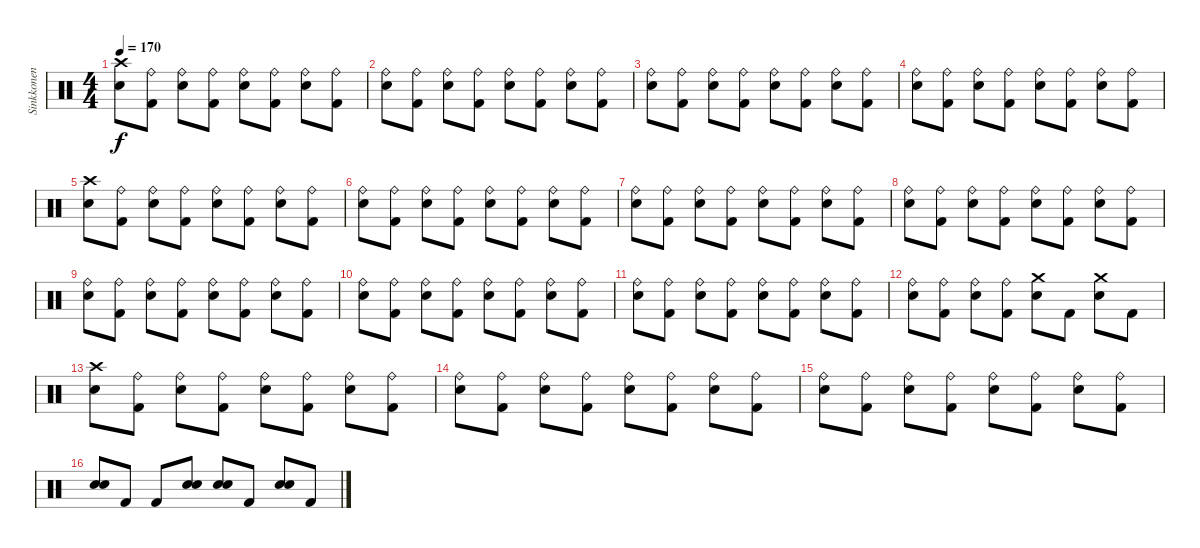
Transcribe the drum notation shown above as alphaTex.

\track ("Sinkkonen" "Sinkkonen") {instrument percussion}
\staff {score}
\articulation defaults
\ts (4 4)
\tempo 170
\clef neutral
\ks c
("Crash high (hit)" "Electric Snare (hit)").8{dy f} ("Ride (bell)" "Kick (hit) 2").8 ("Ride (bell)" "Electric Snare (hit)").8 ("Ride (bell)" "Kick (hit) 2").8 ("Ride (bell)" "Electric Snare (hit)").8 ("Ride (bell)" "Kick (hit) 2").8 ("Ride (bell)" "Electric Snare (hit)").8 ("Ride (bell)" "Kick (hit) 2").8 |
("Ride (bell)" "Electric Snare (hit)").8 ("Ride (bell)" "Kick (hit) 2").8 ("Ride (bell)" "Electric Snare (hit)").8 ("Ride (bell)" "Kick (hit) 2").8 ("Ride (bell)" "Electric Snare (hit)").8 ("Ride (bell)" "Kick (hit) 2").8 ("Ride (bell)" "Electric Snare (hit)").8 ("Ride (bell)" "Kick (hit) 2").8 |
("Ride (bell)" "Electric Snare (hit)").8 ("Ride (bell)" "Kick (hit) 2").8 ("Ride (bell)" "Electric Snare (hit)").8 ("Ride (bell)" "Kick (hit) 2").8 ("Ride (bell)" "Electric Snare (hit)").8 ("Ride (bell)" "Kick (hit) 2").8 ("Ride (bell)" "Electric Snare (hit)").8 ("Ride (bell)" "Kick (hit) 2").8 |
("Ride (bell)" "Electric Snare (hit)").8 ("Ride (bell)" "Kick (hit) 2").8 ("Ride (bell)" "Electric Snare (hit)").8 ("Ride (bell)" "Kick (hit) 2").8 ("Ride (bell)" "Electric Snare (hit)").8 ("Ride (bell)" "Kick (hit) 2").8 ("Ride (bell)" "Electric Snare (hit)").8 ("Ride (bell)" "Kick (hit) 2").8 |
("Crash high (hit)" "Electric Snare (hit)").8 ("Ride (bell)" "Kick (hit) 2").8 ("Ride (bell)" "Electric Snare (hit)").8 ("Ride (bell)" "Kick (hit) 2").8 ("Ride (bell)" "Electric Snare (hit)").8 ("Ride (bell)" "Kick (hit) 2").8 ("Ride (bell)" "Electric Snare (hit)").8 ("Ride (bell)" "Kick (hit) 2").8 |
("Ride (bell)" "Electric Snare (hit)").8 ("Ride (bell)" "Kick (hit) 2").8 ("Ride (bell)" "Electric Snare (hit)").8 ("Ride (bell)" "Kick (hit) 2").8 ("Ride (bell)" "Electric Snare (hit)").8 ("Ride (bell)" "Kick (hit) 2").8 ("Ride (bell)" "Electric Snare (hit)").8 ("Ride (bell)" "Kick (hit) 2").8 |
("Ride (bell)" "Electric Snare (hit)").8 ("Ride (bell)" "Kick (hit) 2").8 ("Ride (bell)" "Electric Snare (hit)").8 ("Ride (bell)" "Kick (hit) 2").8 ("Ride (bell)" "Electric Snare (hit)").8 ("Ride (bell)" "Kick (hit) 2").8 ("Ride (bell)" "Electric Snare (hit)").8 ("Ride (bell)" "Kick (hit) 2").8 |
("Ride (bell)" "Electric Snare (hit)").8 ("Ride (bell)" "Kick (hit) 2").8 ("Ride (bell)" "Electric Snare (hit)").8 ("Ride (bell)" "Kick (hit) 2").8 ("Ride (bell)" "Electric Snare (hit)").8 ("Ride (bell)" "Kick (hit) 2").8 ("Ride (bell)" "Electric Snare (hit)").8 ("Ride (bell)" "Kick (hit) 2").8 |
("Ride (bell)" "Electric Snare (hit)").8 ("Ride (bell)" "Kick (hit) 2").8 ("Ride (bell)" "Electric Snare (hit)").8 ("Ride (bell)" "Kick (hit) 2").8 ("Ride (bell)" "Electric Snare (hit)").8 ("Ride (bell)" "Kick (hit) 2").8 ("Ride (bell)" "Electric Snare (hit)").8 ("Ride (bell)" "Kick (hit) 2").8 |
("Ride (bell)" "Electric Snare (hit)").8 ("Ride (bell)" "Kick (hit) 2").8 ("Ride (bell)" "Electric Snare (hit)").8 ("Ride (bell)" "Kick (hit) 2").8 ("Ride (bell)" "Electric Snare (hit)").8 ("Ride (bell)" "Kick (hit) 2").8 ("Ride (bell)" "Electric Snare (hit)").8 ("Ride (bell)" "Kick (hit) 2").8 |
("Ride (bell)" "Electric Snare (hit)").8 ("Ride (bell)" "Kick (hit) 2").8 ("Ride (bell)" "Electric Snare (hit)").8 ("Ride (bell)" "Kick (hit) 2").8 ("Ride (bell)" "Electric Snare (hit)").8 ("Ride (bell)" "Kick (hit) 2").8 ("Ride (bell)" "Electric Snare (hit)").8 ("Ride (bell)" "Kick (hit) 2").8 |
("Ride (bell)" "Electric Snare (hit)").8 ("Ride (bell)" "Kick (hit) 2").8 ("Ride (bell)" "Electric Snare (hit)").8 ("Ride (bell)" "Kick (hit) 2").8 ("Crash medium (hit)" "Electric Snare (hit)").8 "Kick (hit) 2".8 ("Crash medium (hit)" "Electric Snare (hit)").8 "Kick (hit) 2".8 |
("Crash high (hit)" "Electric Snare (hit)").8 ("Ride (bell)" "Kick (hit) 2").8 ("Ride (bell)" "Electric Snare (hit)").8 ("Ride (bell)" "Kick (hit) 2").8 ("Ride (bell)" "Electric Snare (hit)").8 ("Ride (bell)" "Kick (hit) 2").8 ("Ride (bell)" "Electric Snare (hit)").8 ("Ride (bell)" "Kick (hit) 2").8 |
("Ride (bell)" "Electric Snare (hit)").8 ("Ride (bell)" "Kick (hit) 2").8 ("Ride (bell)" "Electric Snare (hit)").8 ("Ride (bell)" "Kick (hit) 2").8 ("Ride (bell)" "Electric Snare (hit)").8 ("Ride (bell)" "Kick (hit) 2").8 ("Ride (bell)" "Electric Snare (hit)").8 ("Ride (bell)" "Kick (hit) 2").8 |
("Ride (bell)" "Electric Snare (hit)").8 ("Ride (bell)" "Kick (hit) 2").8 ("Ride (bell)" "Electric Snare (hit)").8 ("Ride (bell)" "Kick (hit) 2").8 ("Ride (bell)" "Electric Snare (hit)").8 ("Ride (bell)" "Kick (hit) 2").8 ("Ride (bell)" "Electric Snare (hit)").8 ("Ride (bell)" "Kick (hit) 2").8 |
("Electric Snare (hit)" "Electric Snare (hit)").8 "Kick (hit) 2".8 "Kick (hit) 2".8 ("Electric Snare (hit)" "Electric Snare (hit)").8 ("Electric Snare (hit)" "Electric Snare (hit)").8 "Kick (hit) 2".8 ("Electric Snare (hit)" "Electric Snare (hit)").8 "Kick (hit) 2".8
